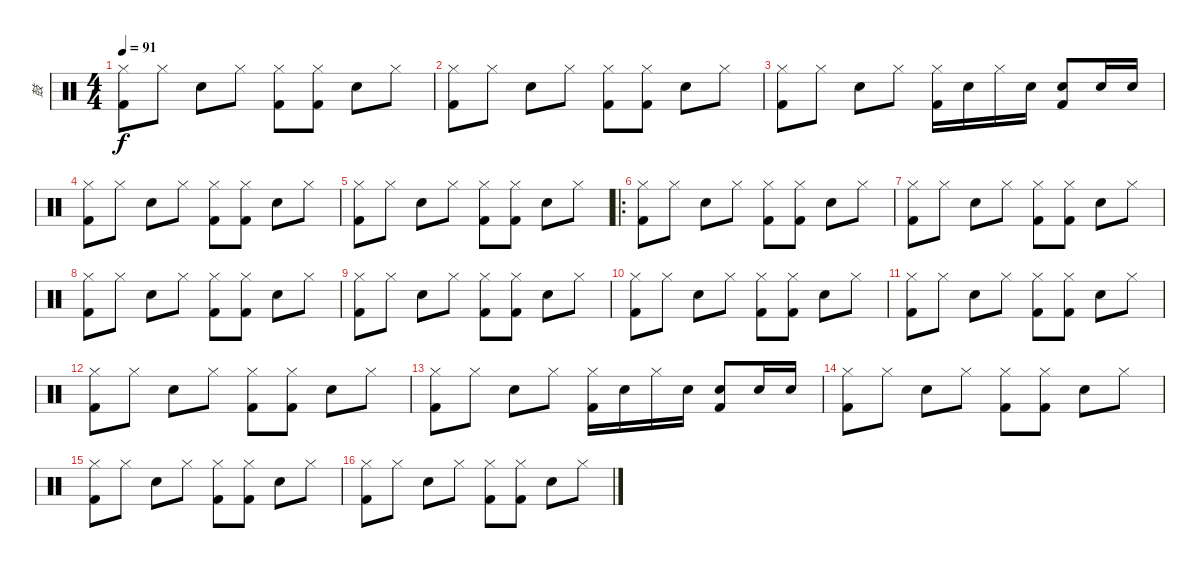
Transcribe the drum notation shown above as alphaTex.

\track ("鼓" "鼓") {instrument percussion}
\staff {score}
\articulation defaults
\ts (4 4)
\tempo 91
\clef neutral
\ks c
("Hi-Hat (closed)" "Kick (hit) 2").8{dy f} "Hi-Hat (closed)".8 "Snare (hit) 2".8 "Hi-Hat (closed)".8 ("Hi-Hat (closed)" "Kick (hit) 2").8 ("Hi-Hat (closed)" "Kick (hit) 2").8 "Snare (hit) 2".8 "Hi-Hat (closed)".8 |
("Hi-Hat (closed)" "Kick (hit) 2").8 "Hi-Hat (closed)".8 "Snare (hit) 2".8 "Hi-Hat (closed)".8 ("Hi-Hat (closed)" "Kick (hit) 2").8 ("Hi-Hat (closed)" "Kick (hit) 2").8 "Snare (hit) 2".8 "Hi-Hat (closed)".8 |
("Hi-Hat (closed)" "Kick (hit) 2").8 "Hi-Hat (closed)".8 "Snare (hit) 2".8 "Hi-Hat (closed)".8 ("Hi-Hat (closed)" "Kick (hit) 2").16 "Snare (hit) 2".16 "Hi-Hat (closed)".16 "Snare (hit) 2".16 ("Snare (hit) 2" "Kick (hit) 2").8 "Snare (hit) 2".16 "Snare (hit) 2".16 |
("Hi-Hat (closed)" "Kick (hit) 2").8 "Hi-Hat (closed)".8 "Snare (hit) 2".8 "Hi-Hat (closed)".8 ("Hi-Hat (closed)" "Kick (hit) 2").8 ("Hi-Hat (closed)" "Kick (hit) 2").8 "Snare (hit) 2".8 "Hi-Hat (closed)".8 |
("Hi-Hat (closed)" "Kick (hit) 2").8 "Hi-Hat (closed)".8 "Snare (hit) 2".8 "Hi-Hat (closed)".8 ("Hi-Hat (closed)" "Kick (hit) 2").8 ("Hi-Hat (closed)" "Kick (hit) 2").8 "Snare (hit) 2".8 "Hi-Hat (closed)".8 |
\ro
("Hi-Hat (closed)" "Kick (hit) 2").8 "Hi-Hat (closed)".8 "Snare (hit) 2".8 "Hi-Hat (closed)".8 ("Hi-Hat (closed)" "Kick (hit) 2").8 ("Hi-Hat (closed)" "Kick (hit) 2").8 "Snare (hit) 2".8 "Hi-Hat (closed)".8 |
("Hi-Hat (closed)" "Kick (hit) 2").8 "Hi-Hat (closed)".8 "Snare (hit) 2".8 "Hi-Hat (closed)".8 ("Hi-Hat (closed)" "Kick (hit) 2").8 ("Hi-Hat (closed)" "Kick (hit) 2").8 "Snare (hit) 2".8 "Hi-Hat (closed)".8 |
("Hi-Hat (closed)" "Kick (hit) 2").8 "Hi-Hat (closed)".8 "Snare (hit) 2".8 "Hi-Hat (closed)".8 ("Hi-Hat (closed)" "Kick (hit) 2").8 ("Hi-Hat (closed)" "Kick (hit) 2").8 "Snare (hit) 2".8 "Hi-Hat (closed)".8 |
("Hi-Hat (closed)" "Kick (hit) 2").8 "Hi-Hat (closed)".8 "Snare (hit) 2".8 "Hi-Hat (closed)".8 ("Hi-Hat (closed)" "Kick (hit) 2").8 ("Hi-Hat (closed)" "Kick (hit) 2").8 "Snare (hit) 2".8 "Hi-Hat (closed)".8 |
("Hi-Hat (closed)" "Kick (hit) 2").8 "Hi-Hat (closed)".8 "Snare (hit) 2".8 "Hi-Hat (closed)".8 ("Hi-Hat (closed)" "Kick (hit) 2").8 ("Hi-Hat (closed)" "Kick (hit) 2").8 "Snare (hit) 2".8 "Hi-Hat (closed)".8 |
("Hi-Hat (closed)" "Kick (hit) 2").8 "Hi-Hat (closed)".8 "Snare (hit) 2".8 "Hi-Hat (closed)".8 ("Hi-Hat (closed)" "Kick (hit) 2").8 ("Hi-Hat (closed)" "Kick (hit) 2").8 "Snare (hit) 2".8 "Hi-Hat (closed)".8 |
("Hi-Hat (closed)" "Kick (hit) 2").8 "Hi-Hat (closed)".8 "Snare (hit) 2".8 "Hi-Hat (closed)".8 ("Hi-Hat (closed)" "Kick (hit) 2").8 ("Hi-Hat (closed)" "Kick (hit) 2").8 "Snare (hit) 2".8 "Hi-Hat (closed)".8 |
("Hi-Hat (closed)" "Kick (hit) 2").8 "Hi-Hat (closed)".8 "Snare (hit) 2".8 "Hi-Hat (closed)".8 ("Hi-Hat (closed)" "Kick (hit) 2").16 "Snare (hit) 2".16 "Hi-Hat (closed)".16 "Snare (hit) 2".16 ("Snare (hit) 2" "Kick (hit) 2").8 "Snare (hit) 2".16 "Snare (hit) 2".16 |
("Hi-Hat (closed)" "Kick (hit) 2").8 "Hi-Hat (closed)".8 "Snare (hit) 2".8 "Hi-Hat (closed)".8 ("Hi-Hat (closed)" "Kick (hit) 2").8 ("Hi-Hat (closed)" "Kick (hit) 2").8 "Snare (hit) 2".8 "Hi-Hat (closed)".8 |
("Hi-Hat (closed)" "Kick (hit) 2").8 "Hi-Hat (closed)".8 "Snare (hit) 2".8 "Hi-Hat (closed)".8 ("Hi-Hat (closed)" "Kick (hit) 2").8 ("Hi-Hat (closed)" "Kick (hit) 2").8 "Snare (hit) 2".8 "Hi-Hat (closed)".8 |
("Hi-Hat (closed)" "Kick (hit) 2").8 "Hi-Hat (closed)".8 "Snare (hit) 2".8 "Hi-Hat (closed)".8 ("Hi-Hat (closed)" "Kick (hit) 2").8 ("Hi-Hat (closed)" "Kick (hit) 2").8 "Snare (hit) 2".8 "Hi-Hat (closed)".8
